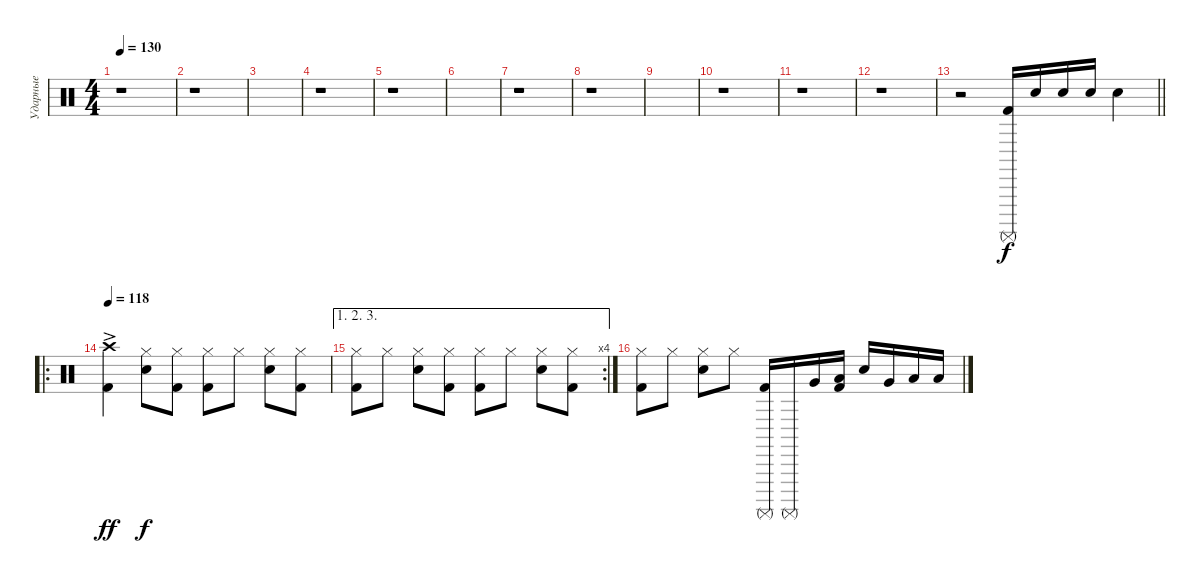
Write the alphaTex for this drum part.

\track ("Ударные" "Ударные") {instrument percussion}
\staff
\articulation defaults
\ts (4 4)
\tempo 130
\clef neutral
\ks c
r.1{dy f} |
r.1 |
|
r.1 |
r.1 |
|
r.1 |
r.1 |
|
r.1 |
r.1 |
r.1 |
\barLineRight lightlight
r.2 ("Kick (hit) 2" "Surdo (mute)").16 "Snare (hit) 2".16 "Snare (hit) 2".16 "Snare (hit) 2".16 "Snare (hit) 2".4 |
\ro
\tempo 118
("Kick (hit) 2" "Crash high (hit)"{ac}).4{dy ff} ("Snare (hit) 2" "Hi-Hat (closed)").8{dy f} ("Kick (hit) 2" "Hi-Hat (closed)").8 ("Kick (hit) 2" "Hi-Hat (closed)").8 "Hi-Hat (closed)".8 ("Snare (hit) 2" "Hi-Hat (closed)").8 ("Kick (hit) 2" "Hi-Hat (closed)").8 |
\ae (1 2 3)
\rc 4
("Kick (hit) 2" "Hi-Hat (closed)").8 "Hi-Hat (closed)".8 ("Snare (hit) 2" "Hi-Hat (closed)").8 ("Kick (hit) 2" "Hi-Hat (closed)").8 ("Kick (hit) 2" "Hi-Hat (closed)").8 "Hi-Hat (closed)".8 ("Snare (hit) 2" "Hi-Hat (closed)").8 ("Kick (hit) 2" "Hi-Hat (closed)").8 |
("Kick (hit) 2" "Hi-Hat (closed)").8 "Hi-Hat (closed)".8 ("Snare (hit) 2" "Hi-Hat (closed)").8 "Hi-Hat (closed)".8 ("Kick (hit) 2" "Surdo (mute)").16 "Surdo (mute)".16 "Very Low Tom (hit)".16 ("Kick (hit) 2" "Low Floor Tom (hit)").16 "Snare (hit) 2".16 "Very Low Tom (hit)".16 "Low Tom (hit)".16 "Low Floor Tom (hit)".16
